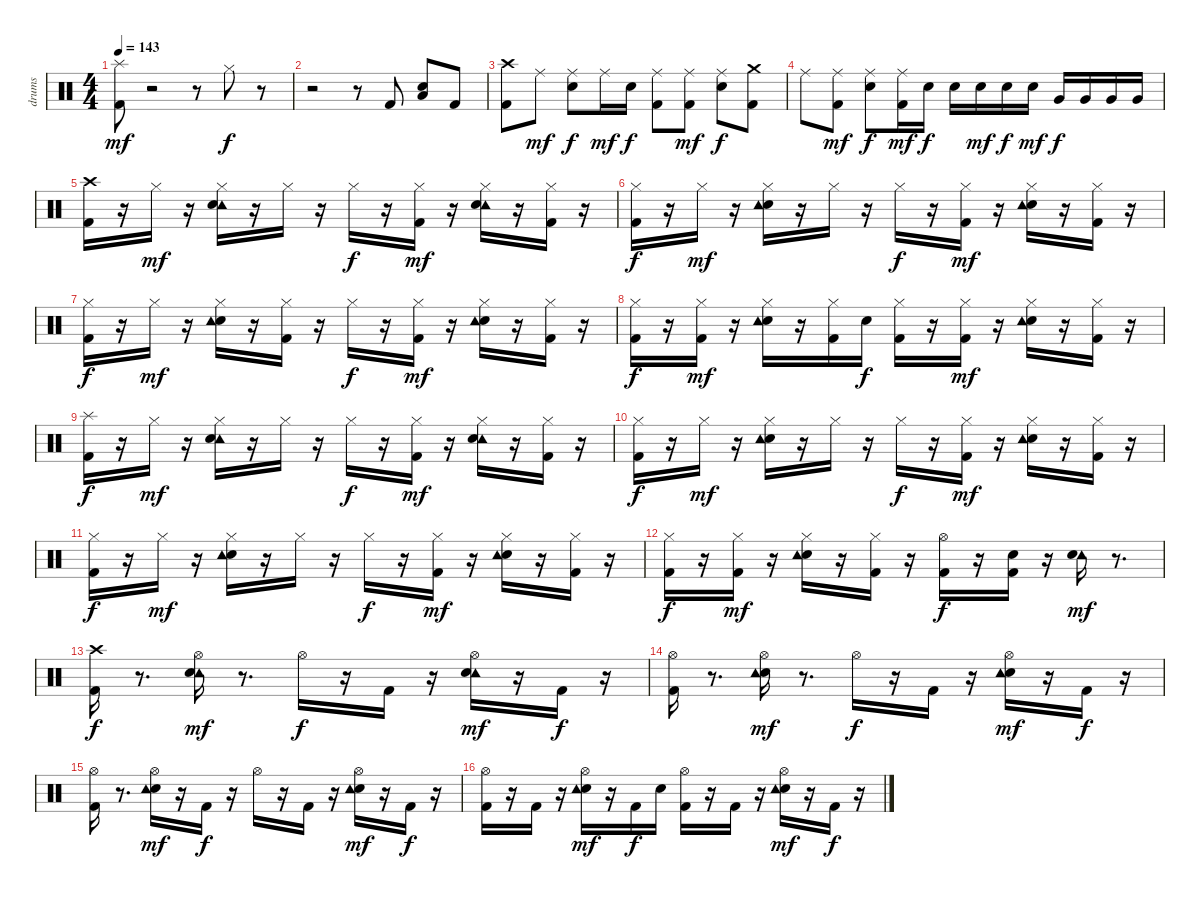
\track ("drums" "drums") {instrument percussion}
\staff {score}
\articulation defaults
\ts (4 4)
\tempo 143
\clef neutral
\ks c
("Splash (hit)" "Kick (hit) 2").8{dy mf} r.2 r.8 "Hi-Hat (closed)".8{dy f} r.8 |
r.2 r.8 "Kick (hit) 2".8 ("Low Floor Tom (hit)" "Snare (hit) 2").8 "Kick (hit) 2".8 |
("Kick (hit) 2" "Crash high (hit)").8 "Ride (middle)".8{dy mf} ("Ride (middle)" "Snare (hit) 2").8{dy f} "Ride (middle)".16{dy mf} "Snare (hit) 2".16{dy f} ("Kick (hit) 2" "Ride (middle)").8 ("Kick (hit) 2" "Ride (middle)").8{dy mf} ("Snare (hit) 2" "Ride (middle)").8{dy f} ("Crash medium (hit)" "Kick (hit) 2").8 |
"Ride (middle)".8 ("Kick (hit) 2" "Ride (middle)").8{dy mf} ("Snare (hit) 2" "Ride (middle)").8{dy f} ("Kick (hit) 2" "Ride (middle)").16{dy mf} "Snare (hit) 2".16{dy f} "Snare (hit) 2".16 "Snare (hit) 2".16{dy mf} "Snare (hit) 2".16{dy f} "Snare (hit) 2".16{dy mf} "Very Low Tom (hit)".16{dy f} "Very Low Tom (hit)".16 "Very Low Tom (hit)".16 "Very Low Tom (hit)".16 |
("Kick (hit) 2" "Crash high (hit)").16 r.16 "Hi-Hat (closed)".16{dy mf} r.16 ("Tambourine (hit)" "Hi-Hat (closed)" "Snare (hit) 2").16 r.16 "Hi-Hat (closed)".16 r.16 "Hi-Hat (closed)".16{dy f} r.16 ("Hi-Hat (closed)" "Kick (hit) 2").16{dy mf} r.16 ("Tambourine (hit)" "Hi-Hat (closed)" "Snare (hit) 2").16 r.16 ("Hi-Hat (closed)" "Kick (hit) 2").16 r.16 |
("Hi-Hat (closed)" "Kick (hit) 2").16{dy f} r.16 "Hi-Hat (closed)".16{dy mf} r.16 ("Hi-Hat (closed)" "Snare (hit) 2" "Tambourine (hit)").16 r.16 "Hi-Hat (closed)".16 r.16 "Hi-Hat (closed)".16{dy f} r.16 ("Hi-Hat (closed)" "Kick (hit) 2").16{dy mf} r.16 ("Hi-Hat (closed)" "Snare (hit) 2" "Tambourine (hit)").16 r.16 ("Hi-Hat (closed)" "Kick (hit) 2").16 r.16 |
("Kick (hit) 2" "Hi-Hat (closed)").16{dy f} r.16 "Hi-Hat (closed)".16{dy mf} r.16 ("Snare (hit) 2" "Hi-Hat (closed)" "Tambourine (hit)").16 r.16 ("Kick (hit) 2" "Hi-Hat (closed)").16 r.16 "Hi-Hat (closed)".16{dy f} r.16 ("Kick (hit) 2" "Hi-Hat (closed)").16{dy mf} r.16 ("Snare (hit) 2" "Hi-Hat (closed)" "Tambourine (hit)").16 r.16 ("Kick (hit) 2" "Hi-Hat (closed)").16 r.16 |
("Kick (hit) 2" "Hi-Hat (closed)").16{dy f} r.16 ("Kick (hit) 2" "Hi-Hat (closed)").16{dy mf} r.16 ("Snare (hit) 2" "Hi-Hat (closed)" "Tambourine (hit)").16 r.16 ("Kick (hit) 2" "Hi-Hat (closed)").16 "Snare (hit) 2".16{dy f} ("Kick (hit) 2" "Hi-Hat (closed)").16 r.16 ("Kick (hit) 2" "Hi-Hat (closed)").16{dy mf} r.16 ("Snare (hit) 2" "Hi-Hat (closed)" "Tambourine (hit)").16 r.16 ("Kick (hit) 2" "Hi-Hat (closed)").16 r.16 |
("Splash (hit)" "Kick (hit) 2").16{dy f} r.16 "Hi-Hat (closed)".16{dy mf} r.16 ("Tambourine (hit)" "Snare (hit) 2" "Hi-Hat (closed)").16 r.16 "Hi-Hat (closed)".16 r.16 "Hi-Hat (closed)".16{dy f} r.16 ("Kick (hit) 2" "Hi-Hat (closed)").16{dy mf} r.16 ("Tambourine (hit)" "Snare (hit) 2" "Hi-Hat (closed)").16 r.16 ("Kick (hit) 2" "Hi-Hat (closed)").16 r.16 |
("Kick (hit) 2" "Hi-Hat (closed)").16{dy f} r.16 "Hi-Hat (closed)".16{dy mf} r.16 ("Snare (hit) 2" "Hi-Hat (closed)" "Tambourine (hit)").16 r.16 "Hi-Hat (closed)".16 r.16 "Hi-Hat (closed)".16{dy f} r.16 ("Kick (hit) 2" "Hi-Hat (closed)").16{dy mf} r.16 ("Snare (hit) 2" "Hi-Hat (closed)" "Tambourine (hit)").16 r.16 ("Kick (hit) 2" "Hi-Hat (closed)").16 r.16 |
("Hi-Hat (closed)" "Kick (hit) 2").16{dy f} r.16 "Hi-Hat (closed)".16{dy mf} r.16 ("Hi-Hat (closed)" "Snare (hit) 2" "Tambourine (hit)").16 r.16 "Hi-Hat (closed)".16 r.16 "Hi-Hat (closed)".16{dy f} r.16 ("Hi-Hat (closed)" "Kick (hit) 2").16{dy mf} r.16 ("Hi-Hat (closed)" "Snare (hit) 2" "Tambourine (hit)").16 r.16 ("Hi-Hat (closed)" "Kick (hit) 2").16 r.16 |
("Hi-Hat (closed)" "Kick (hit) 2").16{dy f} r.16 ("Hi-Hat (closed)" "Kick (hit) 2").16{dy mf} r.16 ("Snare (hit) 2" "Hi-Hat (closed)" "Tambourine (hit)").16 r.16 ("Hi-Hat (closed)" "Kick (hit) 2").16 r.16 ("Hi-Hat (open)" "Kick (hit) 2").16{dy f} r.16 ("Snare (hit) 2" "Kick (hit) 2").16 r.16 ("Tambourine (hit)" "Snare (hit) 2").16{dy mf} r.8{d} |
("Crash high (hit)" "Kick (hit) 2").16{dy f} r.8{d} ("Tambourine (hit)" "Snare (hit) 2" "Hi-Hat (open)").16{dy mf} r.8{d} "Hi-Hat (open)".16{dy f} r.16 "Kick (hit) 2".16 r.16 ("Tambourine (hit)" "Snare (hit) 2" "Hi-Hat (open)").16{dy mf} r.16 "Kick (hit) 2".16{dy f} r.16 |
("Kick (hit) 2" "Hi-Hat (open)").16 r.8{d} ("Snare (hit) 2" "Hi-Hat (open)" "Tambourine (hit)").16{dy mf} r.8{d} "Hi-Hat (open)".16{dy f} r.16 "Kick (hit) 2".16 r.16 ("Snare (hit) 2" "Hi-Hat (open)" "Tambourine (hit)").16{dy mf} r.16 "Kick (hit) 2".16{dy f} r.16 |
("Hi-Hat (open)" "Kick (hit) 2").16 r.8{d} ("Hi-Hat (open)" "Snare (hit) 2" "Tambourine (hit)").16{dy mf} r.16 "Kick (hit) 2".16{dy f} r.16 "Hi-Hat (open)".16 r.16 "Kick (hit) 2".16 r.16 ("Hi-Hat (open)" "Snare (hit) 2" "Tambourine (hit)").16{dy mf} r.16 "Kick (hit) 2".16{dy f} r.16 |
("Hi-Hat (open)" "Kick (hit) 2").16 r.16 "Kick (hit) 2".16 r.16 ("Hi-Hat (open)" "Snare (hit) 2" "Tambourine (hit)").16{dy mf} r.16 "Kick (hit) 2".16{dy f} "Snare (hit) 2".16 ("Hi-Hat (open)" "Kick (hit) 2").16 r.16 "Kick (hit) 2".16 r.16 ("Hi-Hat (open)" "Snare (hit) 2" "Tambourine (hit)").16{dy mf} r.16 "Kick (hit) 2".16{dy f} r.16
